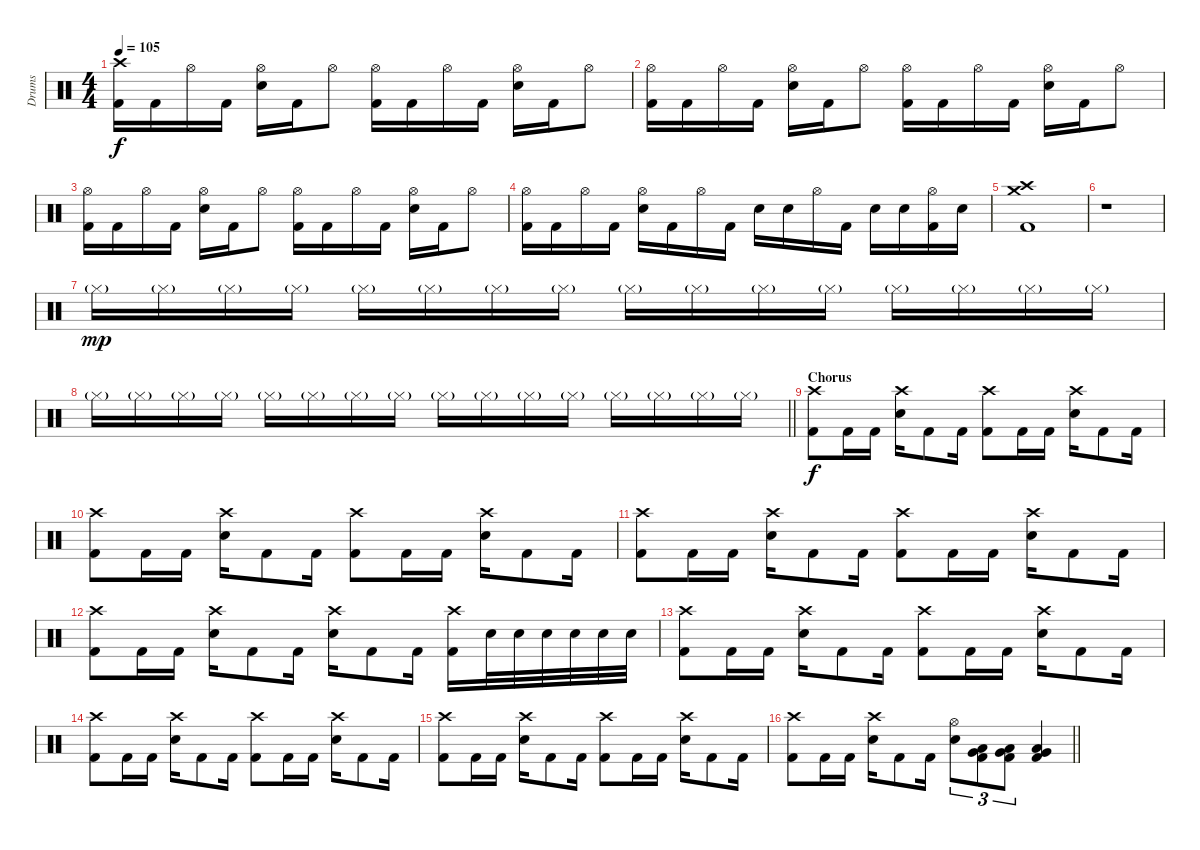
\track ("Drums" "Drums") {instrument percussion}
\staff {score}
\articulation defaults
\ts (4 4)
\tempo 105
\clef neutral
\ks c
("Crash high (hit)" "Kick (hit) 2").16{dy f} "Kick (hit) 2".16 "Hi-Hat (open)".16 "Kick (hit) 2".16 ("Hi-Hat (open)" "Snare (hit) 2").16 "Kick (hit) 2".16 "Hi-Hat (open)".8 ("Hi-Hat (open)" "Kick (hit) 2").16 "Kick (hit) 2".16 "Hi-Hat (open)".16 "Kick (hit) 2".16 ("Hi-Hat (open)" "Snare (hit) 2").16 "Kick (hit) 2".16 "Hi-Hat (open)".8 |
("Hi-Hat (open)" "Kick (hit) 2").16 "Kick (hit) 2".16 "Hi-Hat (open)".16 "Kick (hit) 2".16 ("Hi-Hat (open)" "Snare (hit) 2").16 "Kick (hit) 2".16 "Hi-Hat (open)".8 ("Hi-Hat (open)" "Kick (hit) 2").16 "Kick (hit) 2".16 "Hi-Hat (open)".16 "Kick (hit) 2".16 ("Hi-Hat (open)" "Snare (hit) 2").16 "Kick (hit) 2".16 "Hi-Hat (open)".8 |
("Hi-Hat (open)" "Kick (hit) 2").16 "Kick (hit) 2".16 "Hi-Hat (open)".16 "Kick (hit) 2".16 ("Hi-Hat (open)" "Snare (hit) 2").16 "Kick (hit) 2".16 "Hi-Hat (open)".8 ("Hi-Hat (open)" "Kick (hit) 2").16 "Kick (hit) 2".16 "Hi-Hat (open)".16 "Kick (hit) 2".16 ("Hi-Hat (open)" "Snare (hit) 2").16 "Kick (hit) 2".16 "Hi-Hat (open)".8 |
("Hi-Hat (open)" "Kick (hit) 2").16 "Kick (hit) 2".16 "Hi-Hat (open)".16 "Kick (hit) 2".16 ("Hi-Hat (open)" "Snare (hit) 2").16 "Kick (hit) 2".16 "Hi-Hat (open)".16 "Kick (hit) 2".16 "Snare (hit) 2".16 "Snare (hit) 2".16 "Hi-Hat (open)".16 "Kick (hit) 2".16 "Snare (hit) 2".16 "Snare (hit) 2".16 ("Hi-Hat (open)" "Kick (hit) 2").16 "Snare (hit) 2".16 |
("Crash high (hit)" "Crash medium (hit)" "Kick (hit) 2").1 |
r.1 |
"Hi-Hat (closed)"{g}.16{dy mp} "Hi-Hat (closed)"{g}.16 "Hi-Hat (closed)"{g}.16 "Hi-Hat (closed)"{g}.16 "Hi-Hat (closed)"{g}.16 "Hi-Hat (closed)"{g}.16 "Hi-Hat (closed)"{g}.16 "Hi-Hat (closed)"{g}.16 "Hi-Hat (closed)"{g}.16 "Hi-Hat (closed)"{g}.16 "Hi-Hat (closed)"{g}.16 "Hi-Hat (closed)"{g}.16 "Hi-Hat (closed)"{g}.16 "Hi-Hat (closed)"{g}.16 "Hi-Hat (closed)"{g}.16 "Hi-Hat (closed)"{g}.16 |
\barLineRight lightlight "Hi-Hat (closed)"{g}.16 "Hi-Hat (closed)"{g}.16 "Hi-Hat (closed)"{g}.16 "Hi-Hat (closed)"{g}.16 "Hi-Hat (closed)"{g}.16 "Hi-Hat (closed)"{g}.16 "Hi-Hat (closed)"{g}.16 "Hi-Hat (closed)"{g}.16 "Hi-Hat (closed)"{g}.16 "Hi-Hat (closed)"{g}.16 "Hi-Hat (closed)"{g}.16 "Hi-Hat (closed)"{g}.16 "Hi-Hat (closed)"{g}.16 "Hi-Hat (closed)"{g}.16 "Hi-Hat (closed)"{g}.16 "Hi-Hat (closed)"{g}.16
|
\section ("" "Chorus")
("Crash high (hit)" "Kick (hit) 2").8{dy f} "Kick (hit) 2".16 "Kick (hit) 2".16 ("Crash high (hit)" "Snare (hit) 2").16 "Kick (hit) 2".8 "Kick (hit) 2".16 ("Crash high (hit)" "Kick (hit) 2").8 "Kick (hit) 2".16 "Kick (hit) 2".16 ("Crash high (hit)" "Snare (hit) 2").16 "Kick (hit) 2".8 "Kick (hit) 2".16 |
("Crash high (hit)" "Kick (hit) 2").8 "Kick (hit) 2".16 "Kick (hit) 2".16 ("Crash high (hit)" "Snare (hit) 2").16 "Kick (hit) 2".8 "Kick (hit) 2".16 ("Crash high (hit)" "Kick (hit) 2").8 "Kick (hit) 2".16 "Kick (hit) 2".16 ("Crash high (hit)" "Snare (hit) 2").16 "Kick (hit) 2".8 "Kick (hit) 2".16 |
("Crash high (hit)" "Kick (hit) 2").8 "Kick (hit) 2".16 "Kick (hit) 2".16 ("Crash high (hit)" "Snare (hit) 2").16 "Kick (hit) 2".8 "Kick (hit) 2".16 ("Crash high (hit)" "Kick (hit) 2").8 "Kick (hit) 2".16 "Kick (hit) 2".16 ("Crash high (hit)" "Snare (hit) 2").16 "Kick (hit) 2".8 "Kick (hit) 2".16 |
("Crash high (hit)" "Kick (hit) 2").8 "Kick (hit) 2".16 "Kick (hit) 2".16 ("Crash high (hit)" "Snare (hit) 2").16 "Kick (hit) 2".8 "Kick (hit) 2".16 ("Crash high (hit)" "Snare (hit) 2").16 "Kick (hit) 2".8 "Kick (hit) 2".16 ("Crash high (hit)" "Kick (hit) 2").16 "Snare (hit) 2".32 "Snare (hit) 2".32 "Snare (hit) 2".32 "Snare (hit) 2".32 "Snare (hit) 2".32 "Snare (hit) 2".32 |
("Crash high (hit)" "Kick (hit) 2").8 "Kick (hit) 2".16 "Kick (hit) 2".16 ("Crash high (hit)" "Snare (hit) 2").16 "Kick (hit) 2".8 "Kick (hit) 2".16 ("Crash high (hit)" "Kick (hit) 2").8 "Kick (hit) 2".16 "Kick (hit) 2".16 ("Crash high (hit)" "Snare (hit) 2").16 "Kick (hit) 2".8 "Kick (hit) 2".16 |
("Crash high (hit)" "Kick (hit) 2").8 "Kick (hit) 2".16 "Kick (hit) 2".16 ("Crash high (hit)" "Snare (hit) 2").16 "Kick (hit) 2".8 "Kick (hit) 2".16 ("Crash high (hit)" "Kick (hit) 2").8 "Kick (hit) 2".16 "Kick (hit) 2".16 ("Crash high (hit)" "Snare (hit) 2").16 "Kick (hit) 2".8 "Kick (hit) 2".16 |
("Crash high (hit)" "Kick (hit) 2").8 "Kick (hit) 2".16 "Kick (hit) 2".16 ("Crash high (hit)" "Snare (hit) 2").16 "Kick (hit) 2".8 "Kick (hit) 2".16 ("Crash high (hit)" "Kick (hit) 2").8 "Kick (hit) 2".16 "Kick (hit) 2".16 ("Crash high (hit)" "Snare (hit) 2").16 "Kick (hit) 2".8 "Kick (hit) 2".16 |
\barLineRight lightlight
("Crash high (hit)" "Kick (hit) 2").8 "Kick (hit) 2".16 "Kick (hit) 2".16 ("Crash high (hit)" "Snare (hit) 2").16 "Kick (hit) 2".8 "Kick (hit) 2".16 ("Hi-Hat (open)" "Snare (hit) 2").8{tu (3 2)} ("Low Floor Tom (hit)" "Very Low Tom (hit)" "Kick (hit) 2").8{tu (3 2)} ("Low Floor Tom (hit)" "Very Low Tom (hit)" "Kick (hit) 2").8{tu (3 2)} ("Low Floor Tom (hit)" "Very Low Tom (hit)" "Kick (hit) 2").4
